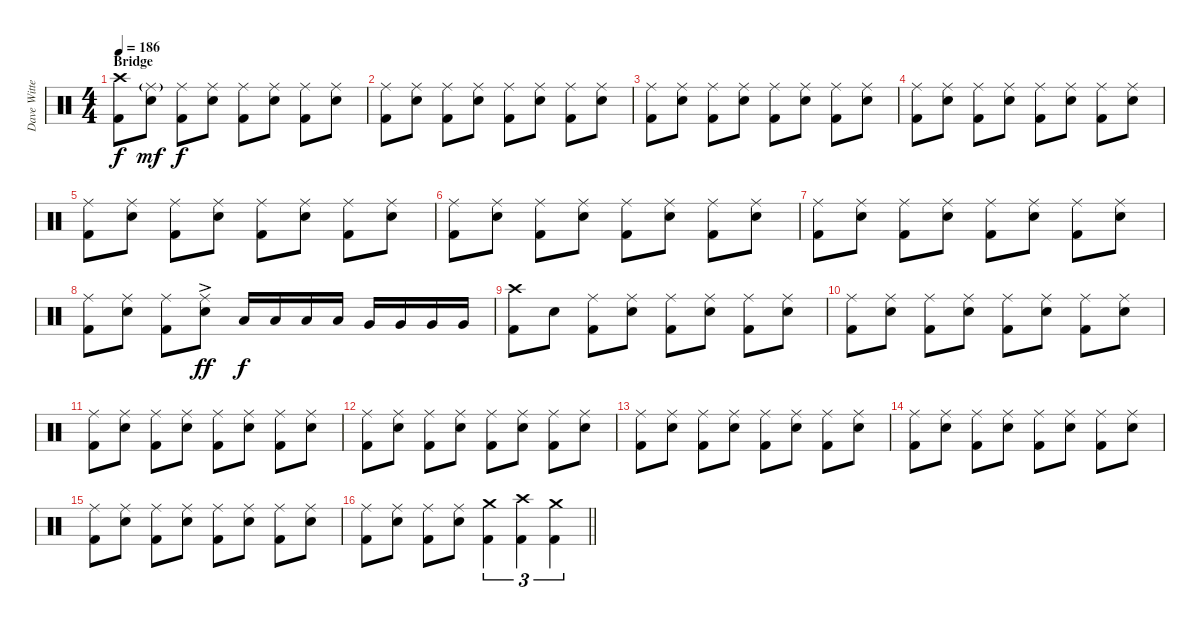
\track ("Dave Witte" "Dave Witte") {instrument percussion}
\staff {score}
\articulation defaults
\ts (4 4)
\section ("" "Bridge")
\tempo 186
\clef neutral
\ks c
("Crash high (hit)" "Kick (hit) 2").8{dy f} ("Ride (middle)"{g} "Electric Snare (hit)").8{dy mf} ("Ride (middle)" "Kick (hit) 2").8{dy f} ("Ride (middle)" "Electric Snare (hit)").8 ("Ride (middle)" "Kick (hit) 2").8 ("Ride (middle)" "Electric Snare (hit)").8 ("Ride (middle)" "Kick (hit) 2").8 ("Ride (middle)" "Electric Snare (hit)").8 |
("Ride (middle)" "Kick (hit) 2").8 ("Ride (middle)" "Electric Snare (hit)").8 ("Ride (middle)" "Kick (hit) 2").8 ("Ride (middle)" "Electric Snare (hit)").8 ("Ride (middle)" "Kick (hit) 2").8 ("Ride (middle)" "Electric Snare (hit)").8 ("Ride (middle)" "Kick (hit) 2").8 ("Ride (middle)" "Electric Snare (hit)").8 |
("Ride (middle)" "Kick (hit) 2").8 ("Ride (middle)" "Electric Snare (hit)").8 ("Ride (middle)" "Kick (hit) 2").8 ("Ride (middle)" "Electric Snare (hit)").8 ("Ride (middle)" "Kick (hit) 2").8 ("Ride (middle)" "Electric Snare (hit)").8 ("Ride (middle)" "Kick (hit) 2").8 ("Ride (middle)" "Electric Snare (hit)").8 |
("Ride (middle)" "Kick (hit) 2").8 ("Ride (middle)" "Electric Snare (hit)").8 ("Ride (middle)" "Kick (hit) 2").8 ("Ride (middle)" "Electric Snare (hit)").8 ("Ride (middle)" "Kick (hit) 2").8 ("Ride (middle)" "Electric Snare (hit)").8 ("Ride (middle)" "Kick (hit) 2").8 ("Ride (middle)" "Electric Snare (hit)").8 |
("Ride (middle)" "Kick (hit) 2").8 ("Ride (middle)" "Electric Snare (hit)").8 ("Ride (middle)" "Kick (hit) 2").8 ("Ride (middle)" "Electric Snare (hit)").8 ("Ride (middle)" "Kick (hit) 2").8 ("Ride (middle)" "Electric Snare (hit)").8 ("Ride (middle)" "Kick (hit) 2").8 ("Ride (middle)" "Electric Snare (hit)").8 |
("Ride (middle)" "Kick (hit) 2").8 ("Ride (middle)" "Electric Snare (hit)").8 ("Ride (middle)" "Kick (hit) 2").8 ("Ride (middle)" "Electric Snare (hit)").8 ("Ride (middle)" "Kick (hit) 2").8 ("Ride (middle)" "Electric Snare (hit)").8 ("Ride (middle)" "Kick (hit) 2").8 ("Ride (middle)" "Electric Snare (hit)").8 |
("Ride (middle)" "Kick (hit) 2").8 ("Ride (middle)" "Electric Snare (hit)").8 ("Ride (middle)" "Kick (hit) 2").8 ("Ride (middle)" "Electric Snare (hit)").8 ("Ride (middle)" "Kick (hit) 2").8 ("Ride (middle)" "Electric Snare (hit)").8 ("Ride (middle)" "Kick (hit) 2").8 ("Ride (middle)" "Electric Snare (hit)").8 |
("Ride (middle)" "Kick (hit) 2").8 ("Ride (middle)" "Electric Snare (hit)").8 ("Ride (middle)" "Kick (hit) 2").8 ("Ride (middle)"{ac} "Electric Snare (hit)").8{dy ff} "Low Tom (hit)".16{dy f} "Low Tom (hit)".16 "Low Tom (hit)".16 "Low Tom (hit)".16 "Very Low Tom (hit)".16 "Very Low Tom (hit)".16 "Very Low Tom (hit)".16 "Very Low Tom (hit)".16 |
("Crash high (hit)" "Kick (hit) 2").8 "Electric Snare (hit)".8 ("Ride (middle)" "Kick (hit) 2").8 ("Ride (middle)" "Electric Snare (hit)").8 ("Ride (middle)" "Kick (hit) 2").8 ("Ride (middle)" "Electric Snare (hit)").8 ("Ride (middle)" "Kick (hit) 2").8 ("Ride (middle)" "Electric Snare (hit)").8 |
("Ride (middle)" "Kick (hit) 2").8 ("Ride (middle)" "Electric Snare (hit)").8 ("Ride (middle)" "Kick (hit) 2").8 ("Ride (middle)" "Electric Snare (hit)").8 ("Ride (middle)" "Kick (hit) 2").8 ("Ride (middle)" "Electric Snare (hit)").8 ("Ride (middle)" "Kick (hit) 2").8 ("Ride (middle)" "Electric Snare (hit)").8 |
("Ride (middle)" "Kick (hit) 2").8 ("Ride (middle)" "Electric Snare (hit)").8 ("Ride (middle)" "Kick (hit) 2").8 ("Ride (middle)" "Electric Snare (hit)").8 ("Ride (middle)" "Kick (hit) 2").8 ("Ride (middle)" "Electric Snare (hit)").8 ("Ride (middle)" "Kick (hit) 2").8 ("Ride (middle)" "Electric Snare (hit)").8 |
("Ride (middle)" "Kick (hit) 2").8 ("Ride (middle)" "Electric Snare (hit)").8 ("Ride (middle)" "Kick (hit) 2").8 ("Ride (middle)" "Electric Snare (hit)").8 ("Ride (middle)" "Kick (hit) 2").8 ("Ride (middle)" "Electric Snare (hit)").8 ("Ride (middle)" "Kick (hit) 2").8 ("Ride (middle)" "Electric Snare (hit)").8 |
("Ride (middle)" "Kick (hit) 2").8 ("Ride (middle)" "Electric Snare (hit)").8 ("Ride (middle)" "Kick (hit) 2").8 ("Ride (middle)" "Electric Snare (hit)").8 ("Ride (middle)" "Kick (hit) 2").8 ("Ride (middle)" "Electric Snare (hit)").8 ("Ride (middle)" "Kick (hit) 2").8 ("Ride (middle)" "Electric Snare (hit)").8 |
("Ride (middle)" "Kick (hit) 2").8 ("Ride (middle)" "Electric Snare (hit)").8 ("Ride (middle)" "Kick (hit) 2").8 ("Ride (middle)" "Electric Snare (hit)").8 ("Ride (middle)" "Kick (hit) 2").8 ("Ride (middle)" "Electric Snare (hit)").8 ("Ride (middle)" "Kick (hit) 2").8 ("Ride (middle)" "Electric Snare (hit)").8 |
("Ride (middle)" "Kick (hit) 2").8 ("Ride (middle)" "Electric Snare (hit)").8 ("Ride (middle)" "Kick (hit) 2").8 ("Ride (middle)" "Electric Snare (hit)").8 ("Ride (middle)" "Kick (hit) 2").8 ("Ride (middle)" "Electric Snare (hit)").8 ("Ride (middle)" "Kick (hit) 2").8 ("Ride (middle)" "Electric Snare (hit)").8 |
\barLineRight lightlight
("Ride (middle)" "Kick (hit) 2").8 ("Ride (middle)" "Electric Snare (hit)").8 ("Ride (middle)" "Kick (hit) 2").8 ("Ride (middle)" "Electric Snare (hit)").8 ("Crash medium (hit)" "Kick (hit) 2").4{tu (3 2)} ("Crash high (hit)" "Kick (hit) 2").4{tu (3 2)} ("Crash medium (hit)" "Kick (hit) 2").4{tu (3 2)}
